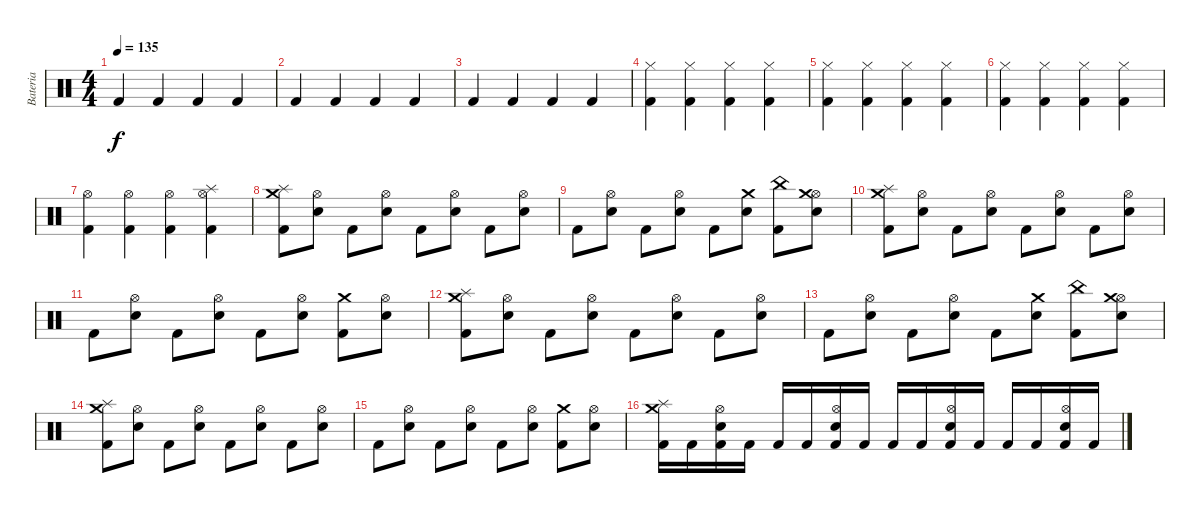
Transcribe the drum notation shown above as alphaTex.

\track ("Bateria" "Bateria") {instrument percussion}
\staff {score}
\articulation defaults
\ts (4 4)
\tempo 135
\clef neutral
\ks c "Kick (hit) 2".4{dy f} "Kick (hit) 2".4 "Kick (hit) 2".4 "Kick (hit) 2".4
|
"Kick (hit) 2".4 "Kick (hit) 2".4 "Kick (hit) 2".4 "Kick (hit) 2".4 |
"Kick (hit) 2".4 "Kick (hit) 2".4 "Kick (hit) 2".4 "Kick (hit) 2".4 |
("Hi-Hat (closed)" "Kick (hit) 2").4 ("Hi-Hat (closed)" "Kick (hit) 2").4 ("Hi-Hat (closed)" "Kick (hit) 2").4 ("Hi-Hat (closed)" "Kick (hit) 2").4 |
("Hi-Hat (closed)" "Kick (hit) 2").4 ("Hi-Hat (closed)" "Kick (hit) 2").4 ("Hi-Hat (closed)" "Kick (hit) 2").4 ("Hi-Hat (closed)" "Kick (hit) 2").4 |
("Hi-Hat (closed)" "Kick (hit) 2").4 ("Hi-Hat (closed)" "Kick (hit) 2").4 ("Hi-Hat (closed)" "Kick (hit) 2").4 ("Hi-Hat (closed)" "Kick (hit) 2").4 |
("Hi-Hat (open)" "Kick (hit) 2").4 ("Hi-Hat (open)" "Kick (hit) 2").4 ("Hi-Hat (open)" "Kick (hit) 2").4 ("Hi-Hat (open)" "Splash (hit)" "Kick (hit) 2").4 |
("Crash medium (hit)" "Splash (hit)" "Kick (hit) 2").8 ("Hi-Hat (open)" "Snare (hit) 2").8 "Kick (hit) 2".8 ("Hi-Hat (open)" "Snare (hit) 2").8 "Kick (hit) 2".8 ("Hi-Hat (open)" "Snare (hit) 2").8 "Kick (hit) 2".8 ("Hi-Hat (open)" "Snare (hit) 2").8 |
"Kick (hit) 2".8 ("Hi-Hat (open)" "Snare (hit) 2").8 "Kick (hit) 2".8 ("Hi-Hat (open)" "Snare (hit) 2").8 "Kick (hit) 2".8 ("Crash medium (hit)" "Snare (hit) 2").8 ("China (hit)" "Kick (hit) 2").8 ("Hi-Hat (open)" "Crash medium (hit)" "Snare (hit) 2").8 |
("Crash medium (hit)" "Splash (hit)" "Kick (hit) 2").8 ("Hi-Hat (open)" "Snare (hit) 2").8 "Kick (hit) 2".8 ("Hi-Hat (open)" "Snare (hit) 2").8 "Kick (hit) 2".8 ("Hi-Hat (open)" "Snare (hit) 2").8 "Kick (hit) 2".8 ("Hi-Hat (open)" "Snare (hit) 2").8 |
"Kick (hit) 2".8 ("Hi-Hat (open)" "Snare (hit) 2").8 "Kick (hit) 2".8 ("Hi-Hat (open)" "Snare (hit) 2").8 "Kick (hit) 2".8 ("Hi-Hat (open)" "Snare (hit) 2").8 ("Crash medium (hit)" "Kick (hit) 2").8 ("Hi-Hat (open)" "Snare (hit) 2").8 |
("Crash medium (hit)" "Splash (hit)" "Kick (hit) 2").8 ("Hi-Hat (open)" "Snare (hit) 2").8 "Kick (hit) 2".8 ("Hi-Hat (open)" "Snare (hit) 2").8 "Kick (hit) 2".8 ("Hi-Hat (open)" "Snare (hit) 2").8 "Kick (hit) 2".8 ("Hi-Hat (open)" "Snare (hit) 2").8 |
"Kick (hit) 2".8 ("Hi-Hat (open)" "Snare (hit) 2").8 "Kick (hit) 2".8 ("Hi-Hat (open)" "Snare (hit) 2").8 "Kick (hit) 2".8 ("Crash medium (hit)" "Snare (hit) 2").8 ("China (hit)" "Kick (hit) 2").8 ("Hi-Hat (open)" "Crash medium (hit)" "Snare (hit) 2").8 |
("Crash medium (hit)" "Splash (hit)" "Kick (hit) 2").8 ("Hi-Hat (open)" "Snare (hit) 2").8 "Kick (hit) 2".8 ("Hi-Hat (open)" "Snare (hit) 2").8 "Kick (hit) 2".8 ("Hi-Hat (open)" "Snare (hit) 2").8 "Kick (hit) 2".8 ("Hi-Hat (open)" "Snare (hit) 2").8 |
"Kick (hit) 2".8 ("Hi-Hat (open)" "Snare (hit) 2").8 "Kick (hit) 2".8 ("Hi-Hat (open)" "Snare (hit) 2").8 "Kick (hit) 2".8 ("Hi-Hat (open)" "Snare (hit) 2").8 ("Crash medium (hit)" "Kick (hit) 2").8 ("Hi-Hat (open)" "Snare (hit) 2").8 |
("Crash medium (hit)" "Splash (hit)" "Kick (hit) 2").16 "Kick (hit) 2".16 ("Hi-Hat (open)" "Snare (hit) 2" "Kick (hit) 2").16 "Kick (hit) 2".16 "Kick (hit) 2".16 "Kick (hit) 2".16 ("Hi-Hat (open)" "Snare (hit) 2" "Kick (hit) 2").16 "Kick (hit) 2".16 "Kick (hit) 2".16 "Kick (hit) 2".16 ("Hi-Hat (open)" "Snare (hit) 2" "Kick (hit) 2").16 "Kick (hit) 2".16 "Kick (hit) 2".16 "Kick (hit) 2".16 ("Hi-Hat (open)" "Snare (hit) 2" "Kick (hit) 2").16 "Kick (hit) 2".16
